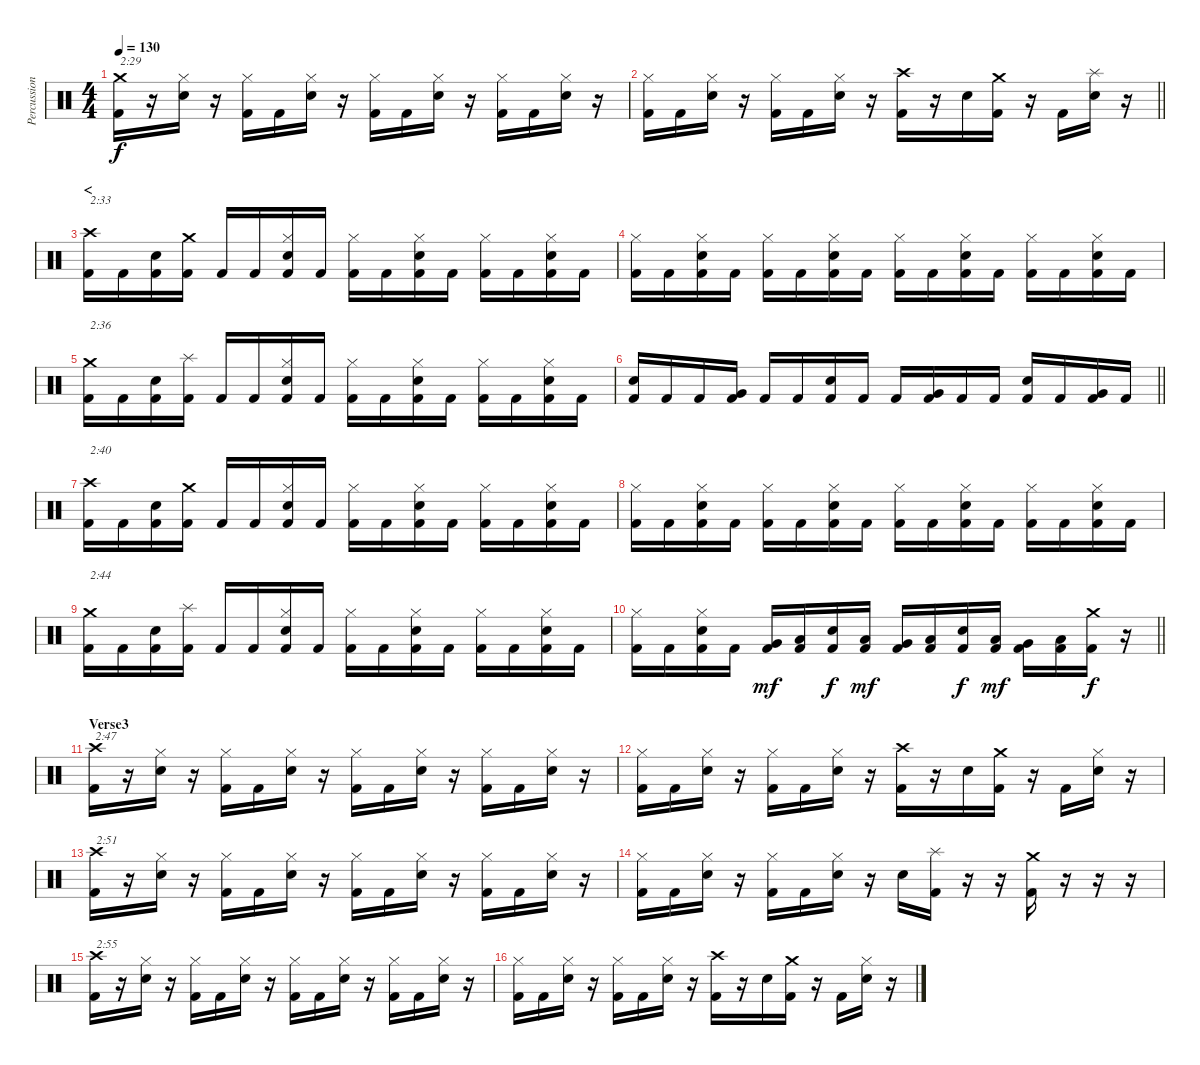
\track ("Percussion" "Percussion") {instrument percussion}
\staff {score}
\articulation defaults
\ts (4 4)
\tempo 130
\clef neutral
\ks c
("Crash medium (hit)" "Kick (hit) 2").16{txt "2:29" dy f} r.16 ("Hi-Hat (closed)" "Electric Snare (hit)").16 r.16 ("Hi-Hat (closed)" "Kick (hit) 2").16 "Kick (hit) 2".16 ("Hi-Hat (closed)" "Electric Snare (hit)").16 r.16 ("Hi-Hat (closed)" "Kick (hit) 2").16 "Kick (hit) 2".16 ("Hi-Hat (closed)" "Electric Snare (hit)").16 r.16 ("Hi-Hat (closed)" "Kick (hit) 2").16 "Kick (hit) 2".16 ("Hi-Hat (closed)" "Electric Snare (hit)").16 r.16 |
\barLineRight lightlight
("Hi-Hat (closed)" "Kick (hit) 2").16 "Kick (hit) 2".16 ("Hi-Hat (closed)" "Electric Snare (hit)").16 r.16 ("Hi-Hat (closed)" "Kick (hit) 2").16 "Kick (hit) 2".16 ("Hi-Hat (closed)" "Electric Snare (hit)").16 r.16 ("Crash high (hit)" "Kick (hit) 2").16 r.16 "Electric Snare (hit)".16 ("Crash medium (hit)" "Kick (hit) 2").16 r.16 "Kick (hit) 2".16 ("Splash (hit)" "Electric Snare (hit)").16 r.16 |
\section ("" "<")
("Crash high (hit)" "Kick (hit) 2").16{txt "2:33"} "Kick (hit) 2".16 ("Electric Snare (hit)" "Kick (hit) 2").16 ("Crash medium (hit)" "Kick (hit) 2").16 "Kick (hit) 2".16 "Kick (hit) 2".16 ("Hi-Hat (closed)" "Electric Snare (hit)" "Kick (hit) 2").16 "Kick (hit) 2".16 ("Hi-Hat (closed)" "Kick (hit) 2").16 "Kick (hit) 2".16 ("Hi-Hat (closed)" "Electric Snare (hit)" "Kick (hit) 2").16 "Kick (hit) 2".16 ("Hi-Hat (closed)" "Kick (hit) 2").16 "Kick (hit) 2".16 ("Hi-Hat (closed)" "Electric Snare (hit)" "Kick (hit) 2").16 "Kick (hit) 2".16 |
("Hi-Hat (closed)" "Kick (hit) 2").16 "Kick (hit) 2".16 ("Hi-Hat (closed)" "Electric Snare (hit)" "Kick (hit) 2").16 "Kick (hit) 2".16 ("Hi-Hat (closed)" "Kick (hit) 2").16 "Kick (hit) 2".16 ("Hi-Hat (closed)" "Electric Snare (hit)" "Kick (hit) 2").16 "Kick (hit) 2".16 ("Hi-Hat (closed)" "Kick (hit) 2").16 "Kick (hit) 2".16 ("Hi-Hat (closed)" "Electric Snare (hit)" "Kick (hit) 2").16 "Kick (hit) 2".16 ("Hi-Hat (closed)" "Kick (hit) 2").16 "Kick (hit) 2".16 ("Hi-Hat (closed)" "Electric Snare (hit)" "Kick (hit) 2").16 "Kick (hit) 2".16 |
("Crash medium (hit)" "Kick (hit) 2").16{txt "2:36"} "Kick (hit) 2".16 ("Electric Snare (hit)" "Kick (hit) 2").16 ("Splash (hit)" "Kick (hit) 2").16 "Kick (hit) 2".16 "Kick (hit) 2".16 ("Hi-Hat (closed)" "Electric Snare (hit)" "Kick (hit) 2").16 "Kick (hit) 2".16 ("Hi-Hat (closed)" "Kick (hit) 2").16 "Kick (hit) 2".16 ("Hi-Hat (closed)" "Electric Snare (hit)" "Kick (hit) 2").16 "Kick (hit) 2".16 ("Hi-Hat (closed)" "Kick (hit) 2").16 "Kick (hit) 2".16 ("Hi-Hat (closed)" "Electric Snare (hit)" "Kick (hit) 2").16 "Kick (hit) 2".16 |
\barLineRight lightlight
("Electric Snare (hit)" "Kick (hit) 2").16 "Kick (hit) 2".16 "Kick (hit) 2".16 ("Very Low Tom (hit)" "Kick (hit) 2").16 "Kick (hit) 2".16 "Kick (hit) 2".16 ("Electric Snare (hit)" "Kick (hit) 2").16 "Kick (hit) 2".16 "Kick (hit) 2".16 ("Very Low Tom (hit)" "Kick (hit) 2").16 "Kick (hit) 2".16 "Kick (hit) 2".16 ("Electric Snare (hit)" "Kick (hit) 2").16 "Kick (hit) 2".16 ("Very Low Tom (hit)" "Kick (hit) 2").16 "Kick (hit) 2".16 |
("Crash high (hit)" "Kick (hit) 2").16{txt "2:40"} "Kick (hit) 2".16 ("Electric Snare (hit)" "Kick (hit) 2").16 ("Crash medium (hit)" "Kick (hit) 2").16 "Kick (hit) 2".16 "Kick (hit) 2".16 ("Hi-Hat (closed)" "Electric Snare (hit)" "Kick (hit) 2").16 "Kick (hit) 2".16 ("Hi-Hat (closed)" "Kick (hit) 2").16 "Kick (hit) 2".16 ("Hi-Hat (closed)" "Electric Snare (hit)" "Kick (hit) 2").16 "Kick (hit) 2".16 ("Hi-Hat (closed)" "Kick (hit) 2").16 "Kick (hit) 2".16 ("Hi-Hat (closed)" "Electric Snare (hit)" "Kick (hit) 2").16 "Kick (hit) 2".16 |
("Hi-Hat (closed)" "Kick (hit) 2").16 "Kick (hit) 2".16 ("Hi-Hat (closed)" "Electric Snare (hit)" "Kick (hit) 2").16 "Kick (hit) 2".16 ("Hi-Hat (closed)" "Kick (hit) 2").16 "Kick (hit) 2".16 ("Hi-Hat (closed)" "Electric Snare (hit)" "Kick (hit) 2").16 "Kick (hit) 2".16 ("Hi-Hat (closed)" "Kick (hit) 2").16 "Kick (hit) 2".16 ("Hi-Hat (closed)" "Electric Snare (hit)" "Kick (hit) 2").16 "Kick (hit) 2".16 ("Hi-Hat (closed)" "Kick (hit) 2").16 "Kick (hit) 2".16 ("Hi-Hat (closed)" "Electric Snare (hit)" "Kick (hit) 2").16 "Kick (hit) 2".16 |
("Crash medium (hit)" "Kick (hit) 2").16{txt "2:44"} "Kick (hit) 2".16 ("Electric Snare (hit)" "Kick (hit) 2").16 ("Splash (hit)" "Kick (hit) 2").16 "Kick (hit) 2".16 "Kick (hit) 2".16 ("Hi-Hat (closed)" "Electric Snare (hit)" "Kick (hit) 2").16 "Kick (hit) 2".16 ("Hi-Hat (closed)" "Kick (hit) 2").16 "Kick (hit) 2".16 ("Hi-Hat (closed)" "Electric Snare (hit)" "Kick (hit) 2").16 "Kick (hit) 2".16 ("Hi-Hat (closed)" "Kick (hit) 2").16 "Kick (hit) 2".16 ("Hi-Hat (closed)" "Electric Snare (hit)" "Kick (hit) 2").16 "Kick (hit) 2".16 |
\barLineRight lightlight
("Hi-Hat (closed)" "Kick (hit) 2").16 "Kick (hit) 2".16 ("Hi-Hat (closed)" "Electric Snare (hit)" "Kick (hit) 2").16 "Kick (hit) 2".16 ("Very Low Tom (hit)" "Kick (hit) 2").16{dy mf} ("Low Floor Tom (hit)" "Kick (hit) 2").16 ("Electric Snare (hit)" "Kick (hit) 2").16{dy f} ("Low Floor Tom (hit)" "Kick (hit) 2").16{dy mf} ("Very Low Tom (hit)" "Kick (hit) 2").16 ("Low Floor Tom (hit)" "Kick (hit) 2").16 ("Electric Snare (hit)" "Kick (hit) 2").16{dy f} ("Low Floor Tom (hit)" "Kick (hit) 2").16{dy mf} ("Very Low Tom (hit)" "Kick (hit) 2").16 ("Low Floor Tom (hit)" "Kick (hit) 2").16 ("Crash medium (hit)" "Kick (hit) 2").16{dy f} r.16 |
\section ("" "Verse3")
("Crash high (hit)" "Kick (hit) 2").16{txt "2:47"} r.16 ("Hi-Hat (closed)" "Electric Snare (hit)").16 r.16 ("Hi-Hat (closed)" "Kick (hit) 2").16 "Kick (hit) 2".16 ("Hi-Hat (closed)" "Electric Snare (hit)").16 r.16 ("Hi-Hat (closed)" "Kick (hit) 2").16 "Kick (hit) 2".16 ("Hi-Hat (closed)" "Electric Snare (hit)").16 r.16 ("Hi-Hat (closed)" "Kick (hit) 2").16 "Kick (hit) 2".16 ("Hi-Hat (closed)" "Electric Snare (hit)").16 r.16 |
("Hi-Hat (closed)" "Kick (hit) 2").16 "Kick (hit) 2".16 ("Hi-Hat (closed)" "Electric Snare (hit)").16 r.16 ("Hi-Hat (closed)" "Kick (hit) 2").16 "Kick (hit) 2".16 ("Hi-Hat (closed)" "Electric Snare (hit)").16 r.16 ("Crash high (hit)" "Kick (hit) 2").16 r.16 "Electric Snare (hit)".16 ("Crash medium (hit)" "Kick (hit) 2").16 r.16 "Kick (hit) 2".16 ("Hi-Hat (closed)" "Electric Snare (hit)").16 r.16 |
("Crash high (hit)" "Kick (hit) 2").16{txt "2:51"} r.16 ("Hi-Hat (closed)" "Electric Snare (hit)").16 r.16 ("Hi-Hat (closed)" "Kick (hit) 2").16 "Kick (hit) 2".16 ("Hi-Hat (closed)" "Electric Snare (hit)").16 r.16 ("Hi-Hat (closed)" "Kick (hit) 2").16 "Kick (hit) 2".16 ("Hi-Hat (closed)" "Electric Snare (hit)").16 r.16 ("Hi-Hat (closed)" "Kick (hit) 2").16 "Kick (hit) 2".16 ("Hi-Hat (closed)" "Electric Snare (hit)").16 r.16 |
("Hi-Hat (closed)" "Kick (hit) 2").16 "Kick (hit) 2".16 ("Hi-Hat (closed)" "Electric Snare (hit)").16 r.16 ("Hi-Hat (closed)" "Kick (hit) 2").16 "Kick (hit) 2".16 ("Hi-Hat (closed)" "Electric Snare (hit)").16 r.16 "Electric Snare (hit)".16 ("Splash (hit)" "Kick (hit) 2").16 r.16 r.16 ("Crash medium (hit)" "Kick (hit) 2").16 r.16 r.16 r.16 |
("Crash high (hit)" "Kick (hit) 2").16{txt "2:55"} r.16 ("Hi-Hat (closed)" "Electric Snare (hit)").16 r.16 ("Hi-Hat (closed)" "Kick (hit) 2").16 "Kick (hit) 2".16 ("Hi-Hat (closed)" "Electric Snare (hit)").16 r.16 ("Hi-Hat (closed)" "Kick (hit) 2").16 "Kick (hit) 2".16 ("Hi-Hat (closed)" "Electric Snare (hit)").16 r.16 ("Hi-Hat (closed)" "Kick (hit) 2").16 "Kick (hit) 2".16 ("Hi-Hat (closed)" "Electric Snare (hit)").16 r.16 |
("Hi-Hat (closed)" "Kick (hit) 2").16 "Kick (hit) 2".16 ("Hi-Hat (closed)" "Electric Snare (hit)").16 r.16 ("Hi-Hat (closed)" "Kick (hit) 2").16 "Kick (hit) 2".16 ("Hi-Hat (closed)" "Electric Snare (hit)").16 r.16 ("Crash high (hit)" "Kick (hit) 2").16 r.16 "Electric Snare (hit)".16 ("Crash medium (hit)" "Kick (hit) 2").16 r.16 "Kick (hit) 2".16 ("Hi-Hat (closed)" "Electric Snare (hit)").16 r.16
